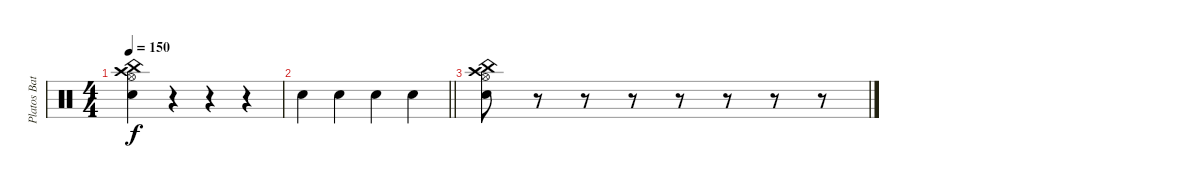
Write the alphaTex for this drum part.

\track ("Platos Batería" "Platos Bat") {instrument percussion}
\staff {score}
\articulation defaults
\ts (4 4)
\tempo 150
\clef neutral
\ks c
("Crash high (hit)" "China (hit)" "Hi-Hat (open)" "Hand Clap (hit)").4{dy f} r.4 r.4 r.4 |
\barLineRight lightlight "Hand Clap (hit)".4 "Hand Clap (hit)".4 "Hand Clap (hit)".4 "Hand Clap (hit)".4
|
("Crash high (hit)" "China (hit)" "Hi-Hat (open)" "Hand Clap (hit)").8 r.8 r.8 r.8 r.8 r.8 r.8 r.8
